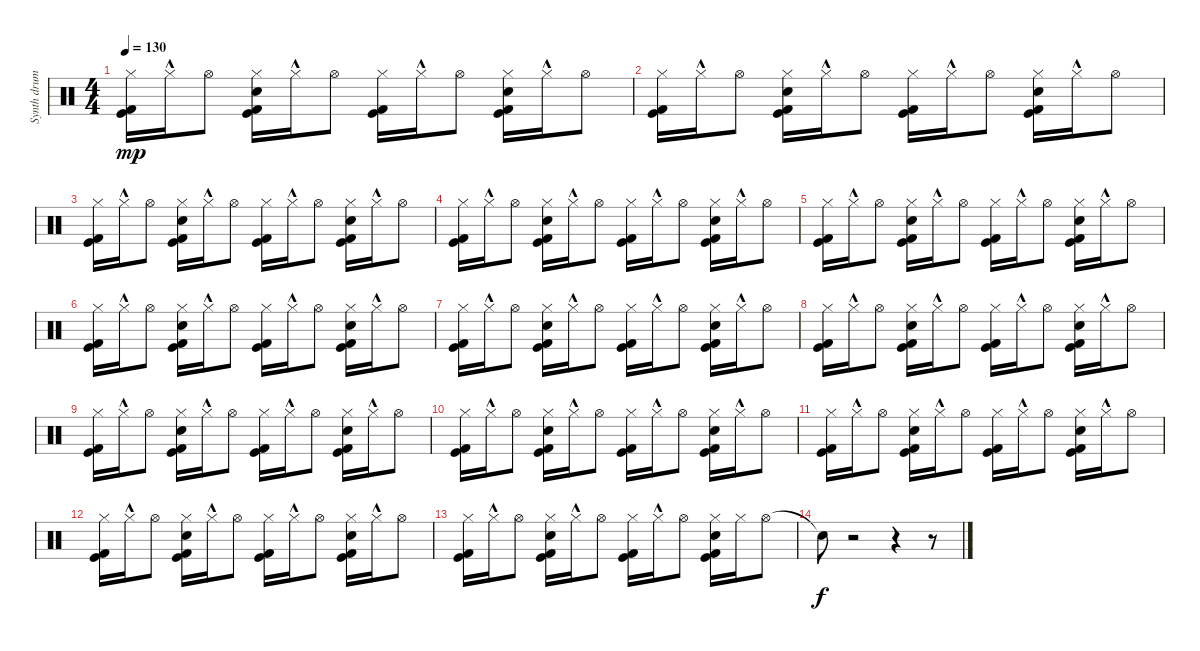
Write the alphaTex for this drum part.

\track ("Synth drums" "Synth drum") {instrument percussion}
\staff {score}
\articulation defaults
\ts (4 4)
\tempo 130
\clef neutral
\ks c
("Kick (hit)" "Kick (hit) 2" "Hi-Hat (closed)").16{dy mp} "Hi-Hat (closed)"{hac}.16 "Hi-Hat (open)".8 ("Hand Clap (hit)" "Kick (hit)" "Kick (hit) 2" "Hi-Hat (closed)").16 "Hi-Hat (closed)"{hac}.16 "Hi-Hat (open)".8 ("Kick (hit)" "Kick (hit) 2" "Hi-Hat (closed)").16 "Hi-Hat (closed)"{hac}.16 "Hi-Hat (open)".8 ("Hand Clap (hit)" "Kick (hit)" "Kick (hit) 2" "Hi-Hat (closed)").16 "Hi-Hat (closed)"{hac}.16 "Hi-Hat (open)".8 |
("Kick (hit)" "Kick (hit) 2" "Hi-Hat (closed)").16 "Hi-Hat (closed)"{hac}.16 "Hi-Hat (open)".8 ("Hand Clap (hit)" "Kick (hit)" "Kick (hit) 2" "Hi-Hat (closed)").16 "Hi-Hat (closed)"{hac}.16 "Hi-Hat (open)".8 ("Kick (hit)" "Kick (hit) 2" "Hi-Hat (closed)").16 "Hi-Hat (closed)"{hac}.16 "Hi-Hat (open)".8 ("Hand Clap (hit)" "Kick (hit)" "Kick (hit) 2" "Hi-Hat (closed)").16 "Hi-Hat (closed)"{hac}.16 "Hi-Hat (open)".8 |
("Kick (hit)" "Kick (hit) 2" "Hi-Hat (closed)").16 "Hi-Hat (closed)"{hac}.16 "Hi-Hat (open)".8 ("Hand Clap (hit)" "Kick (hit)" "Kick (hit) 2" "Hi-Hat (closed)").16 "Hi-Hat (closed)"{hac}.16 "Hi-Hat (open)".8 ("Kick (hit)" "Kick (hit) 2" "Hi-Hat (closed)").16 "Hi-Hat (closed)"{hac}.16 "Hi-Hat (open)".8 ("Hand Clap (hit)" "Kick (hit)" "Kick (hit) 2" "Hi-Hat (closed)").16 "Hi-Hat (closed)"{hac}.16 "Hi-Hat (open)".8 |
("Kick (hit)" "Kick (hit) 2" "Hi-Hat (closed)").16 "Hi-Hat (closed)"{hac}.16 "Hi-Hat (open)".8 ("Hand Clap (hit)" "Kick (hit)" "Kick (hit) 2" "Hi-Hat (closed)").16 "Hi-Hat (closed)"{hac}.16 "Hi-Hat (open)".8 ("Kick (hit)" "Kick (hit) 2" "Hi-Hat (closed)").16 "Hi-Hat (closed)"{hac}.16 "Hi-Hat (open)".8 ("Hand Clap (hit)" "Kick (hit)" "Kick (hit) 2" "Hi-Hat (closed)").16 "Hi-Hat (closed)"{hac}.16 "Hi-Hat (open)".8 |
("Kick (hit)" "Kick (hit) 2" "Hi-Hat (closed)").16 "Hi-Hat (closed)"{hac}.16 "Hi-Hat (open)".8 ("Hand Clap (hit)" "Kick (hit)" "Kick (hit) 2" "Hi-Hat (closed)").16 "Hi-Hat (closed)"{hac}.16 "Hi-Hat (open)".8 ("Kick (hit)" "Kick (hit) 2" "Hi-Hat (closed)").16 "Hi-Hat (closed)"{hac}.16 "Hi-Hat (open)".8 ("Hand Clap (hit)" "Kick (hit)" "Kick (hit) 2" "Hi-Hat (closed)").16 "Hi-Hat (closed)"{hac}.16 "Hi-Hat (open)".8 |
("Kick (hit)" "Kick (hit) 2" "Hi-Hat (closed)").16 "Hi-Hat (closed)"{hac}.16 "Hi-Hat (open)".8 ("Hand Clap (hit)" "Kick (hit)" "Kick (hit) 2" "Hi-Hat (closed)").16 "Hi-Hat (closed)"{hac}.16 "Hi-Hat (open)".8 ("Kick (hit)" "Kick (hit) 2" "Hi-Hat (closed)").16 "Hi-Hat (closed)"{hac}.16 "Hi-Hat (open)".8 ("Hand Clap (hit)" "Kick (hit)" "Kick (hit) 2" "Hi-Hat (closed)").16 "Hi-Hat (closed)"{hac}.16 "Hi-Hat (open)".8 |
("Kick (hit)" "Kick (hit) 2" "Hi-Hat (closed)").16 "Hi-Hat (closed)"{hac}.16 "Hi-Hat (open)".8 ("Hand Clap (hit)" "Kick (hit)" "Kick (hit) 2" "Hi-Hat (closed)").16 "Hi-Hat (closed)"{hac}.16 "Hi-Hat (open)".8 ("Kick (hit)" "Kick (hit) 2" "Hi-Hat (closed)").16 "Hi-Hat (closed)"{hac}.16 "Hi-Hat (open)".8 ("Hand Clap (hit)" "Kick (hit)" "Kick (hit) 2" "Hi-Hat (closed)").16 "Hi-Hat (closed)"{hac}.16 "Hi-Hat (open)".8 |
("Kick (hit)" "Kick (hit) 2" "Hi-Hat (closed)").16 "Hi-Hat (closed)"{hac}.16 "Hi-Hat (open)".8 ("Hand Clap (hit)" "Kick (hit)" "Kick (hit) 2" "Hi-Hat (closed)").16 "Hi-Hat (closed)"{hac}.16 "Hi-Hat (open)".8 ("Kick (hit)" "Kick (hit) 2" "Hi-Hat (closed)").16 "Hi-Hat (closed)"{hac}.16 "Hi-Hat (open)".8 ("Hand Clap (hit)" "Kick (hit)" "Kick (hit) 2" "Hi-Hat (closed)").16 "Hi-Hat (closed)"{hac}.16 "Hi-Hat (open)".8 |
("Kick (hit)" "Kick (hit) 2" "Hi-Hat (closed)").16 "Hi-Hat (closed)"{hac}.16 "Hi-Hat (open)".8 ("Hand Clap (hit)" "Kick (hit)" "Kick (hit) 2" "Hi-Hat (closed)").16 "Hi-Hat (closed)"{hac}.16 "Hi-Hat (open)".8 ("Kick (hit)" "Kick (hit) 2" "Hi-Hat (closed)").16 "Hi-Hat (closed)"{hac}.16 "Hi-Hat (open)".8 ("Hand Clap (hit)" "Kick (hit)" "Kick (hit) 2" "Hi-Hat (closed)").16 "Hi-Hat (closed)"{hac}.16 "Hi-Hat (open)".8 |
("Kick (hit)" "Kick (hit) 2" "Hi-Hat (closed)").16 "Hi-Hat (closed)"{hac}.16 "Hi-Hat (open)".8 ("Hand Clap (hit)" "Kick (hit)" "Kick (hit) 2" "Hi-Hat (closed)").16 "Hi-Hat (closed)"{hac}.16 "Hi-Hat (open)".8 ("Kick (hit)" "Kick (hit) 2" "Hi-Hat (closed)").16 "Hi-Hat (closed)"{hac}.16 "Hi-Hat (open)".8 ("Hand Clap (hit)" "Kick (hit)" "Kick (hit) 2" "Hi-Hat (closed)").16 "Hi-Hat (closed)"{hac}.16 "Hi-Hat (open)".8 |
("Kick (hit)" "Kick (hit) 2" "Hi-Hat (closed)").16 "Hi-Hat (closed)"{hac}.16 "Hi-Hat (open)".8 ("Hand Clap (hit)" "Kick (hit)" "Kick (hit) 2" "Hi-Hat (closed)").16 "Hi-Hat (closed)"{hac}.16 "Hi-Hat (open)".8 ("Kick (hit)" "Kick (hit) 2" "Hi-Hat (closed)").16 "Hi-Hat (closed)"{hac}.16 "Hi-Hat (open)".8 ("Hand Clap (hit)" "Kick (hit)" "Kick (hit) 2" "Hi-Hat (closed)").16 "Hi-Hat (closed)"{hac}.16 "Hi-Hat (open)".8 |
("Kick (hit)" "Kick (hit) 2" "Hi-Hat (closed)").16 "Hi-Hat (closed)"{hac}.16 "Hi-Hat (open)".8 ("Hand Clap (hit)" "Kick (hit)" "Kick (hit) 2" "Hi-Hat (closed)").16 "Hi-Hat (closed)"{hac}.16 "Hi-Hat (open)".8 ("Kick (hit)" "Kick (hit) 2" "Hi-Hat (closed)").16 "Hi-Hat (closed)"{hac}.16 "Hi-Hat (open)".8 ("Hand Clap (hit)" "Kick (hit)" "Kick (hit) 2" "Hi-Hat (closed)").16 "Hi-Hat (closed)"{hac}.16 "Hi-Hat (open)".8 |
("Kick (hit)" "Kick (hit) 2" "Hi-Hat (closed)").16 "Hi-Hat (closed)"{hac}.16 "Hi-Hat (open)".8 ("Hand Clap (hit)" "Kick (hit)" "Kick (hit) 2" "Hi-Hat (closed)").16 "Hi-Hat (closed)"{hac}.16 "Hi-Hat (open)".8 ("Kick (hit)" "Kick (hit) 2" "Hi-Hat (closed)").16 "Hi-Hat (closed)"{hac}.16 "Hi-Hat (open)".8 ("Hand Clap (hit)" "Kick (hit)" "Kick (hit) 2" "Hi-Hat (closed)").16 "Hi-Hat (closed)".16 "Hi-Hat (open)".8 |
"Snare (hit)"{t}.8{dy f} r.2 r.4 r.8
